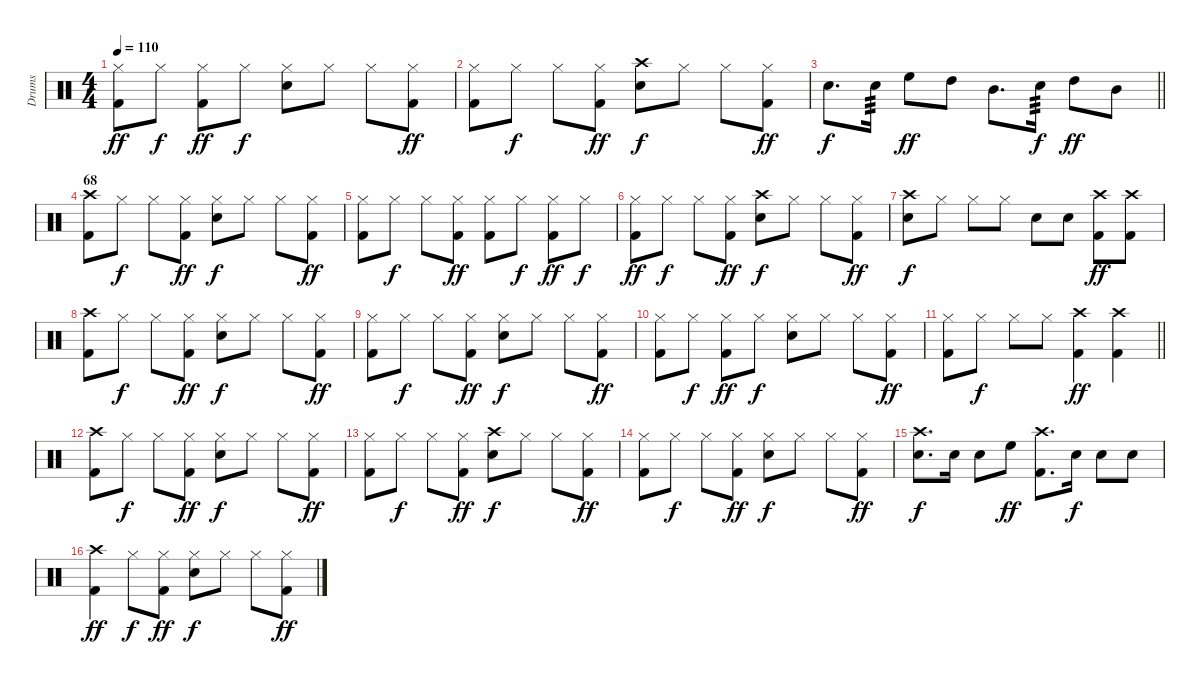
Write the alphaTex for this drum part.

\track ("Drums" "Drums") {instrument percussion}
\staff {score}
\articulation defaults
\ts (4 4)
\tempo 110
\clef neutral
\ks c
("Hi-Hat (closed)" "Kick (hit) 2").8{dy ff} "Hi-Hat (closed)".8{dy f} ("Hi-Hat (closed)" "Kick (hit) 2").8{dy ff} "Hi-Hat (closed)".8{dy f} ("Hi-Hat (closed)" "Snare (hit) 2").8 "Hi-Hat (closed)".8 "Hi-Hat (closed)".8 ("Hi-Hat (closed)" "Kick (hit) 2").8{dy ff} |
("Hi-Hat (closed)" "Kick (hit) 2").8 "Hi-Hat (closed)".8{dy f} "Hi-Hat (closed)".8 ("Hi-Hat (closed)" "Kick (hit) 2").8{dy ff} ("Crash high (hit)" "Snare (hit) 2").8{dy f} "Hi-Hat (closed)".8 "Hi-Hat (closed)".8 ("Hi-Hat (closed)" "Kick (hit) 2").8{dy ff} |
\barLineRight lightlight "Snare (hit) 2".8{d dy f} "Snare (hit) 2".16{tp 3} "High Floor Tom (hit)".8{dy ff} "High Tom (hit)".8 "Mid Tom (hit)".8{d} "Snare (hit) 2".16{tp 3 dy f} "High Tom (hit)".8{dy ff} "Mid Tom (hit)".8
|
\section ("" "68")
("Crash high (hit)" "Kick (hit) 2").8 "Hi-Hat (closed)".8{dy f} "Hi-Hat (closed)".8 ("Hi-Hat (closed)" "Kick (hit) 2").8{dy ff} ("Hi-Hat (closed)" "Snare (hit) 2").8{dy f} "Hi-Hat (closed)".8 "Hi-Hat (closed)".8 ("Hi-Hat (closed)" "Kick (hit) 2").8{dy ff} |
("Hi-Hat (closed)" "Kick (hit) 2").8 "Hi-Hat (closed)".8{dy f} "Hi-Hat (closed)".8 ("Hi-Hat (closed)" "Kick (hit) 2").8{dy ff} ("Hi-Hat (closed)" "Kick (hit) 2").8 "Hi-Hat (closed)".8{dy f} ("Hi-Hat (closed)" "Kick (hit) 2").8{dy ff} "Hi-Hat (closed)".8{dy f} |
("Hi-Hat (closed)" "Kick (hit) 2").8{dy ff} "Hi-Hat (closed)".8{dy f} "Hi-Hat (closed)".8 ("Hi-Hat (closed)" "Kick (hit) 2").8{dy ff} ("Crash high (hit)" "Snare (hit) 2").8{dy f} "Hi-Hat (closed)".8 "Hi-Hat (closed)".8 ("Hi-Hat (closed)" "Kick (hit) 2").8{dy ff} |
("Crash high (hit)" "Snare (hit) 2").8{dy f} "Hi-Hat (closed)".8 "Hi-Hat (closed)".8 "Hi-Hat (closed)".8 "Snare (hit) 2".8 "Snare (hit) 2".8 ("Crash high (hit)" "Kick (hit) 2").8{dy ff} ("Crash high (hit)" "Kick (hit) 2").8 |
("Crash high (hit)" "Kick (hit) 2").8 "Hi-Hat (closed)".8{dy f} "Hi-Hat (closed)".8 ("Hi-Hat (closed)" "Kick (hit) 2").8{dy ff} ("Hi-Hat (closed)" "Snare (hit) 2").8{dy f} "Hi-Hat (closed)".8 "Hi-Hat (closed)".8 ("Hi-Hat (closed)" "Kick (hit) 2").8{dy ff} |
("Hi-Hat (closed)" "Kick (hit) 2").8 "Hi-Hat (closed)".8{dy f} "Hi-Hat (closed)".8 ("Hi-Hat (closed)" "Kick (hit) 2").8{dy ff} ("Hi-Hat (closed)" "Snare (hit) 2").8{dy f} "Hi-Hat (closed)".8 "Hi-Hat (closed)".8 ("Hi-Hat (closed)" "Kick (hit) 2").8{dy ff} |
("Hi-Hat (closed)" "Kick (hit) 2").8 "Hi-Hat (closed)".8{dy f} ("Hi-Hat (closed)" "Kick (hit) 2").8{dy ff} "Hi-Hat (closed)".8{dy f} ("Hi-Hat (closed)" "Snare (hit) 2").8 "Hi-Hat (closed)".8 "Hi-Hat (closed)".8 ("Hi-Hat (closed)" "Kick (hit) 2").8{dy ff} |
\barLineRight lightlight
("Hi-Hat (closed)" "Kick (hit) 2").8 "Hi-Hat (closed)".8{dy f} "Hi-Hat (closed)".8 "Hi-Hat (closed)".8 ("Crash high (hit)" "Kick (hit) 2").4{dy ff} ("Crash high (hit)" "Kick (hit) 2").4 |
("Crash high (hit)" "Kick (hit) 2").8 "Hi-Hat (closed)".8{dy f} "Hi-Hat (closed)".8 ("Hi-Hat (closed)" "Kick (hit) 2").8{dy ff} ("Hi-Hat (closed)" "Snare (hit) 2").8{dy f} "Hi-Hat (closed)".8 "Hi-Hat (closed)".8 ("Hi-Hat (closed)" "Kick (hit) 2").8{dy ff} |
("Hi-Hat (closed)" "Kick (hit) 2").8 "Hi-Hat (closed)".8{dy f} "Hi-Hat (closed)".8 ("Hi-Hat (closed)" "Kick (hit) 2").8{dy ff} ("Crash high (hit)" "Snare (hit) 2").8{dy f} "Hi-Hat (closed)".8 "Hi-Hat (closed)".8 ("Hi-Hat (closed)" "Kick (hit) 2").8{dy ff} |
("Hi-Hat (closed)" "Kick (hit) 2").8 "Hi-Hat (closed)".8{dy f} "Hi-Hat (closed)".8 ("Hi-Hat (closed)" "Kick (hit) 2").8{dy ff} ("Hi-Hat (closed)" "Snare (hit) 2").8{dy f} "Hi-Hat (closed)".8 "Hi-Hat (closed)".8 ("Hi-Hat (closed)" "Kick (hit) 2").8{dy ff} |
("Crash high (hit)" "Snare (hit) 2").8{d dy f} "Snare (hit) 2".16 "Snare (hit) 2".8 "High Floor Tom (hit)".8{dy ff} ("Crash high (hit)" "Kick (hit) 2").8{d} "Snare (hit) 2".16{dy f} "Snare (hit) 2".8 "Snare (hit) 2".8 |
("Crash high (hit)" "Kick (hit) 2").4{dy ff} "Hi-Hat (closed)".8{dy f} ("Hi-Hat (closed)" "Kick (hit) 2").8{dy ff} ("Hi-Hat (closed)" "Snare (hit) 2").8{dy f} "Hi-Hat (closed)".8 "Hi-Hat (closed)".8 ("Hi-Hat (closed)" "Kick (hit) 2").8{dy ff}
